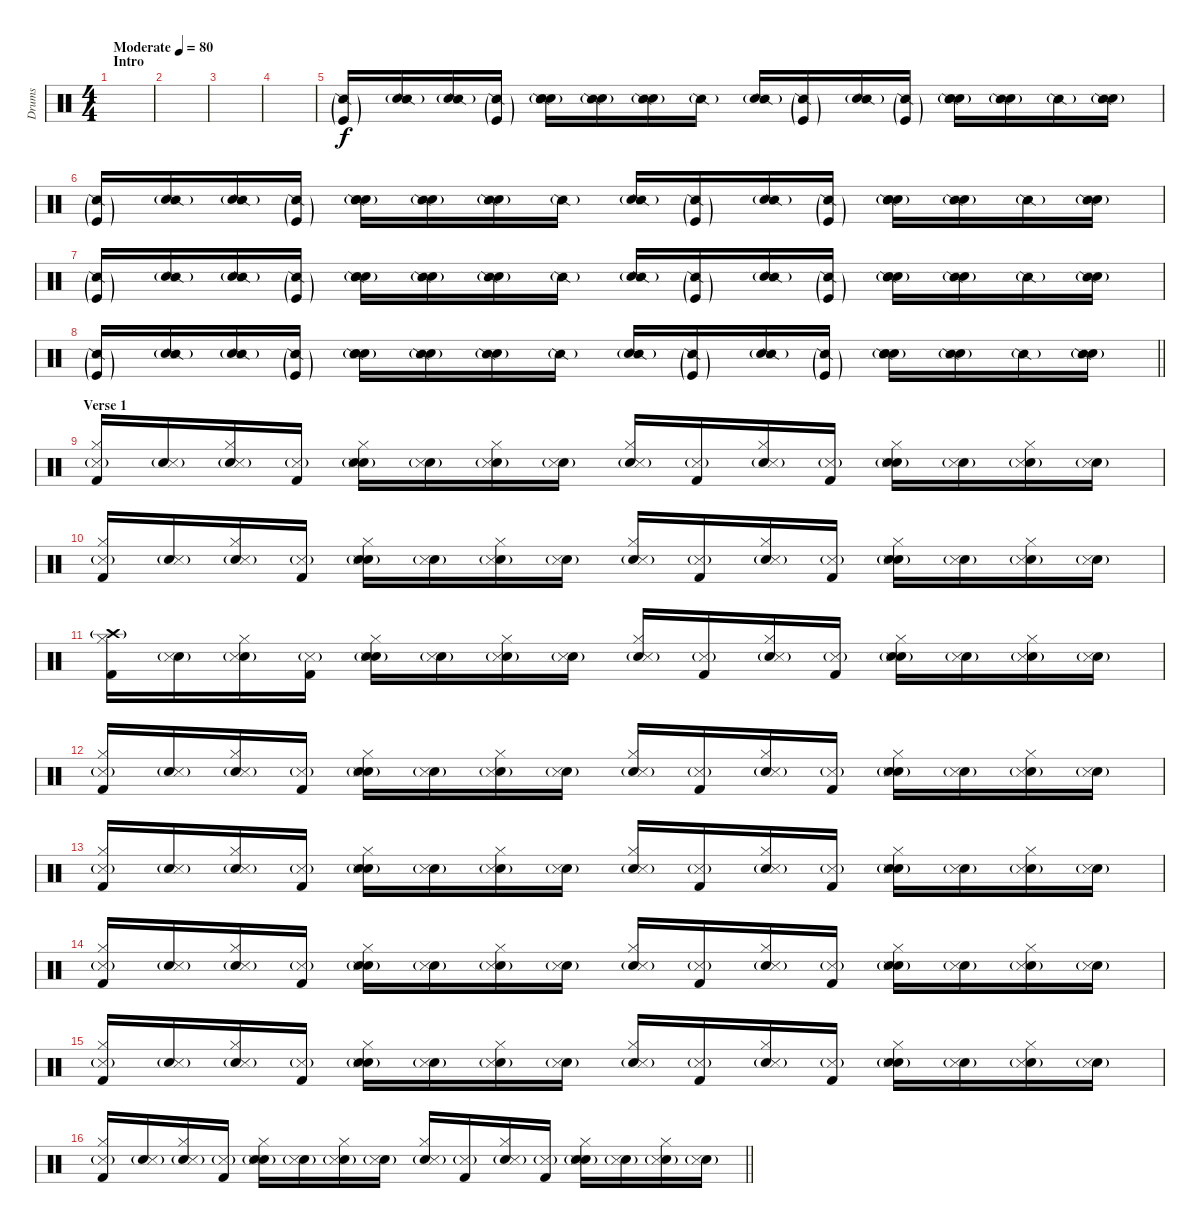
\track ("Drums" "Drums") {instrument percussion}
\staff {score}
\articulation defaults
\ts (4 4)
\section ("" "Intro")
\tempo (80 "Moderate")
\clef neutral
\ks c
|
|
|
|
("Kick (hit)"{g} "Snare (side stick) 2"{g}).16 ("Snare (hit)"{g} "Snare (side stick) 2"{g}).16 ("Snare (hit)"{g} "Snare (side stick) 2"{g}).16 ("Kick (hit)"{g} "Snare (side stick) 2"{g}).16 ("Snare (hit)"{g} "Snare (hit) 2"{g} "Snare (side stick) 2"{g}).16 ("Snare (hit)"{g} "Snare (side stick) 2"{g}).16 ("Snare (hit)"{g} "Snare (side stick) 2"{g}).16 "Snare (side stick) 2"{g}.16 ("Snare (hit)"{g} "Snare (side stick) 2"{g}).16 ("Kick (hit)"{g} "Snare (side stick) 2"{g}).16 ("Snare (hit)"{g} "Snare (side stick) 2"{g}).16 ("Kick (hit)"{g} "Snare (side stick) 2"{g}).16 ("Snare (hit)"{g} "Snare (hit) 2"{g} "Snare (side stick) 2"{g}).16 ("Snare (hit)"{g} "Snare (side stick) 2"{g}).16 "Snare (side stick) 2"{g}.16 ("Snare (hit)"{g} "Snare (side stick) 2"{g}).16 |
("Kick (hit)"{g} "Snare (side stick) 2"{g}).16 ("Snare (hit)"{g} "Snare (side stick) 2"{g}).16 ("Snare (hit)"{g} "Snare (side stick) 2"{g}).16 ("Kick (hit)"{g} "Snare (side stick) 2"{g}).16 ("Snare (hit)"{g} "Snare (hit) 2"{g} "Snare (side stick) 2"{g}).16 ("Snare (hit)"{g} "Snare (side stick) 2"{g}).16 ("Snare (hit)"{g} "Snare (side stick) 2"{g}).16 "Snare (side stick) 2"{g}.16 ("Snare (hit)"{g} "Snare (side stick) 2"{g}).16 ("Kick (hit)"{g} "Snare (side stick) 2"{g}).16 ("Snare (hit)"{g} "Snare (side stick) 2"{g}).16 ("Kick (hit)"{g} "Snare (side stick) 2"{g}).16 ("Snare (hit)"{g} "Snare (hit) 2"{g} "Snare (side stick) 2"{g}).16 ("Snare (hit)"{g} "Snare (side stick) 2"{g}).16 "Snare (side stick) 2"{g}.16 ("Snare (hit)"{g} "Snare (side stick) 2"{g}).16 |
("Kick (hit)"{g} "Snare (side stick) 2"{g}).16 ("Snare (hit)"{g} "Snare (side stick) 2"{g}).16 ("Snare (hit)"{g} "Snare (side stick) 2"{g}).16 ("Kick (hit)"{g} "Snare (side stick) 2"{g}).16 ("Snare (hit)"{g} "Snare (hit) 2"{g} "Snare (side stick) 2"{g}).16 ("Snare (hit)"{g} "Snare (side stick) 2"{g}).16 ("Snare (hit)"{g} "Snare (side stick) 2"{g}).16 "Snare (side stick) 2"{g}.16 ("Snare (hit)"{g} "Snare (side stick) 2"{g}).16 ("Kick (hit)"{g} "Snare (side stick) 2"{g}).16 ("Snare (hit)"{g} "Snare (side stick) 2"{g}).16 ("Kick (hit)"{g} "Snare (side stick) 2"{g}).16 ("Snare (hit)"{g} "Snare (hit) 2"{g} "Snare (side stick) 2"{g}).16 ("Snare (hit)"{g} "Snare (side stick) 2"{g}).16 "Snare (side stick) 2"{g}.16 ("Snare (hit)"{g} "Snare (side stick) 2"{g}).16 |
\barLineRight lightlight
("Kick (hit)"{g} "Snare (side stick) 2"{g}).16 ("Snare (hit)"{g} "Snare (side stick) 2"{g}).16 ("Snare (hit)"{g} "Snare (side stick) 2"{g}).16 ("Kick (hit)"{g} "Snare (side stick) 2"{g}).16 ("Snare (hit)"{g} "Snare (hit) 2"{g} "Snare (side stick) 2"{g}).16 ("Snare (hit)"{g} "Snare (side stick) 2"{g}).16 ("Snare (hit)"{g} "Snare (side stick) 2"{g}).16 "Snare (side stick) 2"{g}.16 ("Snare (hit)"{g} "Snare (side stick) 2"{g}).16 ("Kick (hit)"{g} "Snare (side stick) 2"{g}).16 ("Snare (hit)"{g} "Snare (side stick) 2"{g}).16 ("Kick (hit)"{g} "Snare (side stick) 2"{g}).16 ("Snare (hit)"{g} "Snare (hit) 2"{g} "Snare (side stick) 2"{g}).16 ("Snare (hit)"{g} "Snare (side stick) 2"{g}).16 "Snare (side stick) 2"{g}.16 ("Snare (hit)"{g} "Snare (side stick) 2"{g}).16 |
\section ("" "Verse 1")
("Kick (hit) 2" "Hi-Hat (closed)" "Snare (side stick) 3"{g}).16 ("Snare (hit)" "Snare (side stick) 3"{g}).16 ("Snare (hit)" "Hi-Hat (closed)" "Snare (side stick) 3"{g}).16 ("Kick (hit) 2" "Snare (side stick) 3"{g}).16 ("Snare (hit)" "Electric Snare (hit)" "Hi-Hat (closed)" "Snare (side stick) 3"{g}).16 ("Snare (hit)" "Snare (side stick) 3"{g}).16 ("Snare (hit)" "Hi-Hat (closed)" "Snare (side stick) 3"{g}).16 ("Snare (hit)" "Snare (side stick) 3"{g}).16 ("Snare (hit)" "Hi-Hat (closed)" "Snare (side stick) 3"{g}).16 ("Kick (hit) 2" "Snare (side stick) 3"{g}).16 ("Snare (hit)" "Hi-Hat (closed)" "Snare (side stick) 3"{g}).16 ("Kick (hit) 2" "Snare (side stick) 3"{g}).16 ("Snare (hit)" "Electric Snare (hit)" "Hi-Hat (closed)" "Snare (side stick) 3"{g}).16 ("Snare (hit)" "Snare (side stick) 3"{g}).16 ("Snare (hit)" "Hi-Hat (closed)" "Snare (side stick) 3"{g}).16 ("Snare (hit)" "Snare (side stick) 3"{g}).16 |
("Kick (hit) 2" "Hi-Hat (closed)" "Snare (side stick) 3"{g}).16 ("Snare (hit)" "Snare (side stick) 3"{g}).16 ("Snare (hit)" "Hi-Hat (closed)" "Snare (side stick) 3"{g}).16 ("Kick (hit) 2" "Snare (side stick) 3"{g}).16 ("Snare (hit)" "Electric Snare (hit)" "Hi-Hat (closed)" "Snare (side stick) 3"{g}).16 ("Snare (hit)" "Snare (side stick) 3"{g}).16 ("Snare (hit)" "Hi-Hat (closed)" "Snare (side stick) 3"{g}).16 ("Snare (hit)" "Snare (side stick) 3"{g}).16 ("Snare (hit)" "Hi-Hat (closed)" "Snare (side stick) 3"{g}).16 ("Kick (hit) 2" "Snare (side stick) 3"{g}).16 ("Snare (hit)" "Hi-Hat (closed)" "Snare (side stick) 3"{g}).16 ("Kick (hit) 2" "Snare (side stick) 3"{g}).16 ("Snare (hit)" "Electric Snare (hit)" "Hi-Hat (closed)" "Snare (side stick) 3"{g}).16 ("Snare (hit)" "Snare (side stick) 3"{g}).16 ("Snare (hit)" "Hi-Hat (closed)" "Snare (side stick) 3"{g}).16 ("Snare (hit)" "Snare (side stick) 3"{g}).16 |
("Kick (hit) 2" "Hi-Hat (closed)" "Crash high (hit)"{g}).16 ("Snare (hit)" "Snare (side stick) 3"{g}).16 ("Snare (hit)" "Hi-Hat (closed)" "Snare (side stick) 3"{g}).16 ("Kick (hit) 2" "Snare (side stick) 3"{g}).16 ("Snare (hit)" "Electric Snare (hit)" "Hi-Hat (closed)" "Snare (side stick) 3"{g}).16 ("Snare (hit)" "Snare (side stick) 3"{g}).16 ("Snare (hit)" "Hi-Hat (closed)" "Snare (side stick) 3"{g}).16 ("Snare (hit)" "Snare (side stick) 3"{g}).16 ("Snare (hit)" "Hi-Hat (closed)" "Snare (side stick) 3"{g}).16 ("Kick (hit) 2" "Snare (side stick) 3"{g}).16 ("Snare (hit)" "Hi-Hat (closed)" "Snare (side stick) 3"{g}).16 ("Kick (hit) 2" "Snare (side stick) 3"{g}).16 ("Snare (hit)" "Electric Snare (hit)" "Hi-Hat (closed)" "Snare (side stick) 3"{g}).16 ("Snare (hit)" "Snare (side stick) 3"{g}).16 ("Snare (hit)" "Hi-Hat (closed)" "Snare (side stick) 3"{g}).16 ("Snare (hit)" "Snare (side stick) 3"{g}).16 |
("Kick (hit) 2" "Hi-Hat (closed)" "Snare (side stick) 3"{g}).16 ("Snare (hit)" "Snare (side stick) 3"{g}).16 ("Snare (hit)" "Hi-Hat (closed)" "Snare (side stick) 3"{g}).16 ("Kick (hit) 2" "Snare (side stick) 3"{g}).16 ("Snare (hit)" "Electric Snare (hit)" "Hi-Hat (closed)" "Snare (side stick) 3"{g}).16 ("Snare (hit)" "Snare (side stick) 3"{g}).16 ("Snare (hit)" "Hi-Hat (closed)" "Snare (side stick) 3"{g}).16 ("Snare (hit)" "Snare (side stick) 3"{g}).16 ("Snare (hit)" "Hi-Hat (closed)" "Snare (side stick) 3"{g}).16 ("Kick (hit) 2" "Snare (side stick) 3"{g}).16 ("Snare (hit)" "Hi-Hat (closed)" "Snare (side stick) 3"{g}).16 ("Kick (hit) 2" "Snare (side stick) 3"{g}).16 ("Snare (hit)" "Electric Snare (hit)" "Hi-Hat (closed)" "Snare (side stick) 3"{g}).16 ("Snare (hit)" "Snare (side stick) 3"{g}).16 ("Snare (hit)" "Hi-Hat (closed)" "Snare (side stick) 3"{g}).16 ("Snare (hit)" "Snare (side stick) 3"{g}).16 |
("Kick (hit) 2" "Hi-Hat (closed)" "Snare (side stick) 3"{g}).16 ("Snare (hit)" "Snare (side stick) 3"{g}).16 ("Snare (hit)" "Hi-Hat (closed)" "Snare (side stick) 3"{g}).16 ("Kick (hit) 2" "Snare (side stick) 3"{g}).16 ("Snare (hit)" "Electric Snare (hit)" "Hi-Hat (closed)" "Snare (side stick) 3"{g}).16 ("Snare (hit)" "Snare (side stick) 3"{g}).16 ("Snare (hit)" "Hi-Hat (closed)" "Snare (side stick) 3"{g}).16 ("Snare (hit)" "Snare (side stick) 3"{g}).16 ("Snare (hit)" "Hi-Hat (closed)" "Snare (side stick) 3"{g}).16 ("Kick (hit) 2" "Snare (side stick) 3"{g}).16 ("Snare (hit)" "Hi-Hat (closed)" "Snare (side stick) 3"{g}).16 ("Kick (hit) 2" "Snare (side stick) 3"{g}).16 ("Snare (hit)" "Electric Snare (hit)" "Hi-Hat (closed)" "Snare (side stick) 3"{g}).16 ("Snare (hit)" "Snare (side stick) 3"{g}).16 ("Snare (hit)" "Hi-Hat (closed)" "Snare (side stick) 3"{g}).16 ("Snare (hit)" "Snare (side stick) 3"{g}).16 |
("Kick (hit) 2" "Hi-Hat (closed)" "Snare (side stick) 3"{g}).16 ("Snare (hit)" "Snare (side stick) 3"{g}).16 ("Snare (hit)" "Hi-Hat (closed)" "Snare (side stick) 3"{g}).16 ("Kick (hit) 2" "Snare (side stick) 3"{g}).16 ("Snare (hit)" "Electric Snare (hit)" "Hi-Hat (closed)" "Snare (side stick) 3"{g}).16 ("Snare (hit)" "Snare (side stick) 3"{g}).16 ("Snare (hit)" "Hi-Hat (closed)" "Snare (side stick) 3"{g}).16 ("Snare (hit)" "Snare (side stick) 3"{g}).16 ("Snare (hit)" "Hi-Hat (closed)" "Snare (side stick) 3"{g}).16 ("Kick (hit) 2" "Snare (side stick) 3"{g}).16 ("Snare (hit)" "Hi-Hat (closed)" "Snare (side stick) 3"{g}).16 ("Kick (hit) 2" "Snare (side stick) 3"{g}).16 ("Snare (hit)" "Electric Snare (hit)" "Hi-Hat (closed)" "Snare (side stick) 3"{g}).16 ("Snare (hit)" "Snare (side stick) 3"{g}).16 ("Snare (hit)" "Hi-Hat (closed)" "Snare (side stick) 3"{g}).16 ("Snare (hit)" "Snare (side stick) 3"{g}).16 |
("Kick (hit) 2" "Hi-Hat (closed)" "Snare (side stick) 3"{g}).16 ("Snare (hit)" "Snare (side stick) 3"{g}).16 ("Snare (hit)" "Hi-Hat (closed)" "Snare (side stick) 3"{g}).16 ("Kick (hit) 2" "Snare (side stick) 3"{g}).16 ("Snare (hit)" "Electric Snare (hit)" "Hi-Hat (closed)" "Snare (side stick) 3"{g}).16 ("Snare (hit)" "Snare (side stick) 3"{g}).16 ("Snare (hit)" "Hi-Hat (closed)" "Snare (side stick) 3"{g}).16 ("Snare (hit)" "Snare (side stick) 3"{g}).16 ("Snare (hit)" "Hi-Hat (closed)" "Snare (side stick) 3"{g}).16 ("Kick (hit) 2" "Snare (side stick) 3"{g}).16 ("Snare (hit)" "Hi-Hat (closed)" "Snare (side stick) 3"{g}).16 ("Kick (hit) 2" "Snare (side stick) 3"{g}).16 ("Snare (hit)" "Electric Snare (hit)" "Hi-Hat (closed)" "Snare (side stick) 3"{g}).16 ("Snare (hit)" "Snare (side stick) 3"{g}).16 ("Snare (hit)" "Hi-Hat (closed)" "Snare (side stick) 3"{g}).16 ("Snare (hit)" "Snare (side stick) 3"{g}).16 |
\barLineRight lightlight
("Kick (hit) 2" "Hi-Hat (closed)" "Snare (side stick) 3"{g}).16 ("Snare (hit)" "Snare (side stick) 3"{g}).16 ("Snare (hit)" "Hi-Hat (closed)" "Snare (side stick) 3"{g}).16 ("Kick (hit) 2" "Snare (side stick) 3"{g}).16 ("Snare (hit)" "Electric Snare (hit)" "Hi-Hat (closed)" "Snare (side stick) 3"{g}).16 ("Snare (hit)" "Snare (side stick) 3"{g}).16 ("Snare (hit)" "Hi-Hat (closed)" "Snare (side stick) 3"{g}).16 ("Snare (hit)" "Snare (side stick) 3"{g}).16 ("Snare (hit)" "Hi-Hat (closed)" "Snare (side stick) 3"{g}).16 ("Kick (hit) 2" "Snare (side stick) 3"{g}).16 ("Snare (hit)" "Hi-Hat (closed)" "Snare (side stick) 3"{g}).16 ("Kick (hit) 2" "Snare (side stick) 3"{g}).16 ("Snare (hit)" "Electric Snare (hit)" "Hi-Hat (closed)" "Snare (side stick) 3"{g}).16 ("Snare (hit)" "Snare (side stick) 3"{g}).16 ("Snare (hit)" "Hi-Hat (closed)" "Snare (side stick) 3"{g}).16 ("Snare (hit)" "Snare (side stick) 3"{g}).16
